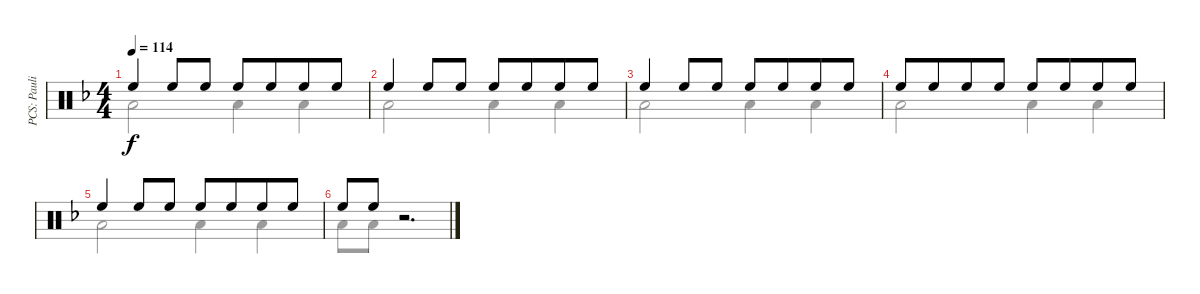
\track ("PCS: Paulinho da Costa" "PCS: Pauli") {instrument percussion}
\staff {score}
\articulation defaults
\voice
\ts (4 4)
\tempo 114
\clef neutral
\ks f "High Floor Tom (hit)".4{dy f} "High Floor Tom (hit)".8 "High Floor Tom (hit)".8 "High Floor Tom (hit)".8 "High Floor Tom (hit)".8{beam merge} "High Floor Tom (hit)".8 "High Floor Tom (hit)".8
|
"High Floor Tom (hit)".4 "High Floor Tom (hit)".8 "High Floor Tom (hit)".8 "High Floor Tom (hit)".8 "High Floor Tom (hit)".8{beam merge} "High Floor Tom (hit)".8 "High Floor Tom (hit)".8 |
"High Floor Tom (hit)".4 "High Floor Tom (hit)".8 "High Floor Tom (hit)".8 "High Floor Tom (hit)".8 "High Floor Tom (hit)".8{beam merge} "High Floor Tom (hit)".8 "High Floor Tom (hit)".8 |
"High Floor Tom (hit)".8 "High Floor Tom (hit)".8{beam merge} "High Floor Tom (hit)".8 "High Floor Tom (hit)".8 "High Floor Tom (hit)".8{beam merge} "High Floor Tom (hit)".8{beam merge} "High Floor Tom (hit)".8 "High Floor Tom (hit)".8 |
"High Floor Tom (hit)".4 "High Floor Tom (hit)".8 "High Floor Tom (hit)".8 "High Floor Tom (hit)".8 "High Floor Tom (hit)".8{beam merge} "High Floor Tom (hit)".8 "High Floor Tom (hit)".8 |
"High Floor Tom (hit)".8{beam merge} "High Floor Tom (hit)".8 r.2{d} |
\voice
\clef neutral
\ottava regular
\simile none
\ks f "Low Floor Tom (hit)".2{dy f} "Low Floor Tom (hit)".4 "Low Floor Tom (hit)".4
|
"Low Floor Tom (hit)".2 "Low Floor Tom (hit)".4 "Low Floor Tom (hit)".4 |
"Low Floor Tom (hit)".2 "Low Floor Tom (hit)".4 "Low Floor Tom (hit)".4 |
"Low Floor Tom (hit)".2 "Low Floor Tom (hit)".4 "Low Floor Tom (hit)".4 |
"Low Floor Tom (hit)".2 "Low Floor Tom (hit)".4 "Low Floor Tom (hit)".4 |
"Low Floor Tom (hit)".8 "Low Floor Tom (hit)".8 r.2{d} |
